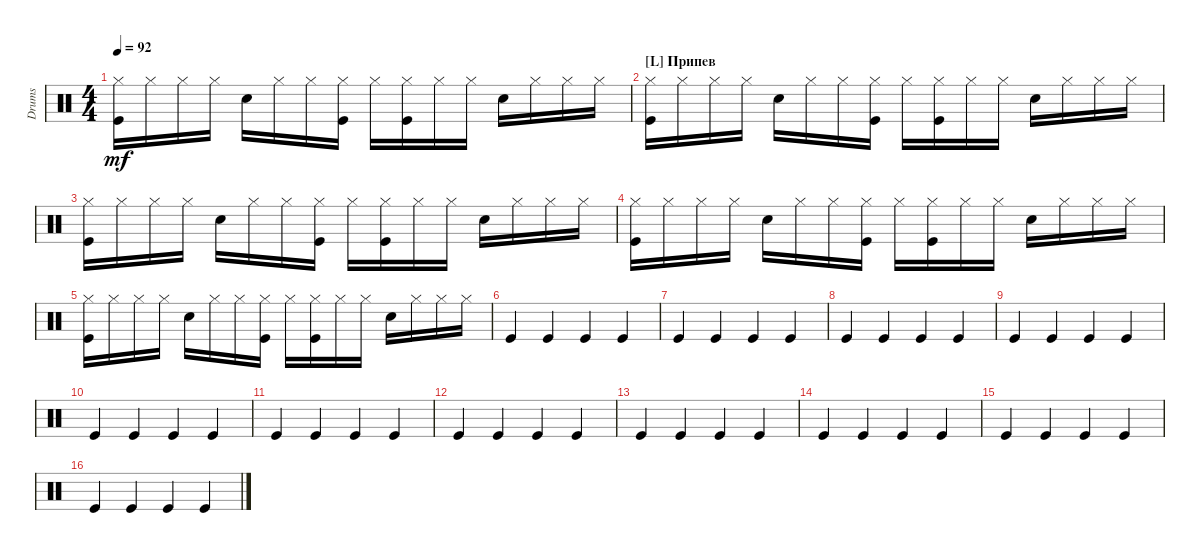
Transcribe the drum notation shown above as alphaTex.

\track ("Drumkit" "Drums") {instrument percussion}
\staff {score}
\articulation defaults
\ts (4 4)
\tempo 92
\clef neutral
\ks c
("Kick (hit)" "Hi-Hat (closed)").16{dy mf} "Hi-Hat (closed)".16 "Hi-Hat (closed)".16 "Hi-Hat (closed)".16 "Snare (hit) 2".16 "Hi-Hat (closed)".16 "Hi-Hat (closed)".16 ("Hi-Hat (closed)" "Kick (hit)").16 "Hi-Hat (closed)".16 ("Hi-Hat (closed)" "Kick (hit)").16 "Hi-Hat (closed)".16 "Hi-Hat (closed)".16 "Snare (hit) 2".16 "Hi-Hat (closed)".16 "Hi-Hat (closed)".16 "Hi-Hat (closed)".16 |
\section ("L" "Припев")
("Kick (hit)" "Hi-Hat (closed)").16 "Hi-Hat (closed)".16 "Hi-Hat (closed)".16 "Hi-Hat (closed)".16 "Snare (hit) 2".16 "Hi-Hat (closed)".16 "Hi-Hat (closed)".16 ("Hi-Hat (closed)" "Kick (hit)").16 "Hi-Hat (closed)".16 ("Hi-Hat (closed)" "Kick (hit)").16 "Hi-Hat (closed)".16 "Hi-Hat (closed)".16 "Snare (hit) 2".16 "Hi-Hat (closed)".16 "Hi-Hat (closed)".16 "Hi-Hat (closed)".16 |
("Kick (hit)" "Hi-Hat (closed)").16 "Hi-Hat (closed)".16 "Hi-Hat (closed)".16 "Hi-Hat (closed)".16 "Snare (hit) 2".16 "Hi-Hat (closed)".16 "Hi-Hat (closed)".16 ("Hi-Hat (closed)" "Kick (hit)").16 "Hi-Hat (closed)".16 ("Hi-Hat (closed)" "Kick (hit)").16 "Hi-Hat (closed)".16 "Hi-Hat (closed)".16 "Snare (hit) 2".16 "Hi-Hat (closed)".16 "Hi-Hat (closed)".16 "Hi-Hat (closed)".16 |
("Kick (hit)" "Hi-Hat (closed)").16 "Hi-Hat (closed)".16 "Hi-Hat (closed)".16 "Hi-Hat (closed)".16 "Snare (hit) 2".16 "Hi-Hat (closed)".16 "Hi-Hat (closed)".16 ("Hi-Hat (closed)" "Kick (hit)").16 "Hi-Hat (closed)".16 ("Hi-Hat (closed)" "Kick (hit)").16 "Hi-Hat (closed)".16 "Hi-Hat (closed)".16 "Snare (hit) 2".16 "Hi-Hat (closed)".16 "Hi-Hat (closed)".16 "Hi-Hat (closed)".16 |
("Kick (hit)" "Hi-Hat (closed)").16 "Hi-Hat (closed)".16 "Hi-Hat (closed)".16 "Hi-Hat (closed)".16 "Snare (hit) 2".16 "Hi-Hat (closed)".16 "Hi-Hat (closed)".16 ("Hi-Hat (closed)" "Kick (hit)").16 "Hi-Hat (closed)".16 ("Hi-Hat (closed)" "Kick (hit)").16 "Hi-Hat (closed)".16 "Hi-Hat (closed)".16 "Snare (hit) 2".16 "Hi-Hat (closed)".16 "Hi-Hat (closed)".16 "Hi-Hat (closed)".16 |
"Kick (hit)".4 "Kick (hit)".4 "Kick (hit)".4 "Kick (hit)".4 |
"Kick (hit)".4 "Kick (hit)".4 "Kick (hit)".4 "Kick (hit)".4 |
"Kick (hit)".4 "Kick (hit)".4 "Kick (hit)".4 "Kick (hit)".4 |
"Kick (hit)".4 "Kick (hit)".4 "Kick (hit)".4 "Kick (hit)".4 |
"Kick (hit)".4 "Kick (hit)".4 "Kick (hit)".4 "Kick (hit)".4 |
"Kick (hit)".4 "Kick (hit)".4 "Kick (hit)".4 "Kick (hit)".4 |
"Kick (hit)".4 "Kick (hit)".4 "Kick (hit)".4 "Kick (hit)".4 |
"Kick (hit)".4 "Kick (hit)".4 "Kick (hit)".4 "Kick (hit)".4 |
"Kick (hit)".4 "Kick (hit)".4 "Kick (hit)".4 "Kick (hit)".4 |
"Kick (hit)".4 "Kick (hit)".4 "Kick (hit)".4 "Kick (hit)".4 |
"Kick (hit)".4 "Kick (hit)".4 "Kick (hit)".4 "Kick (hit)".4
